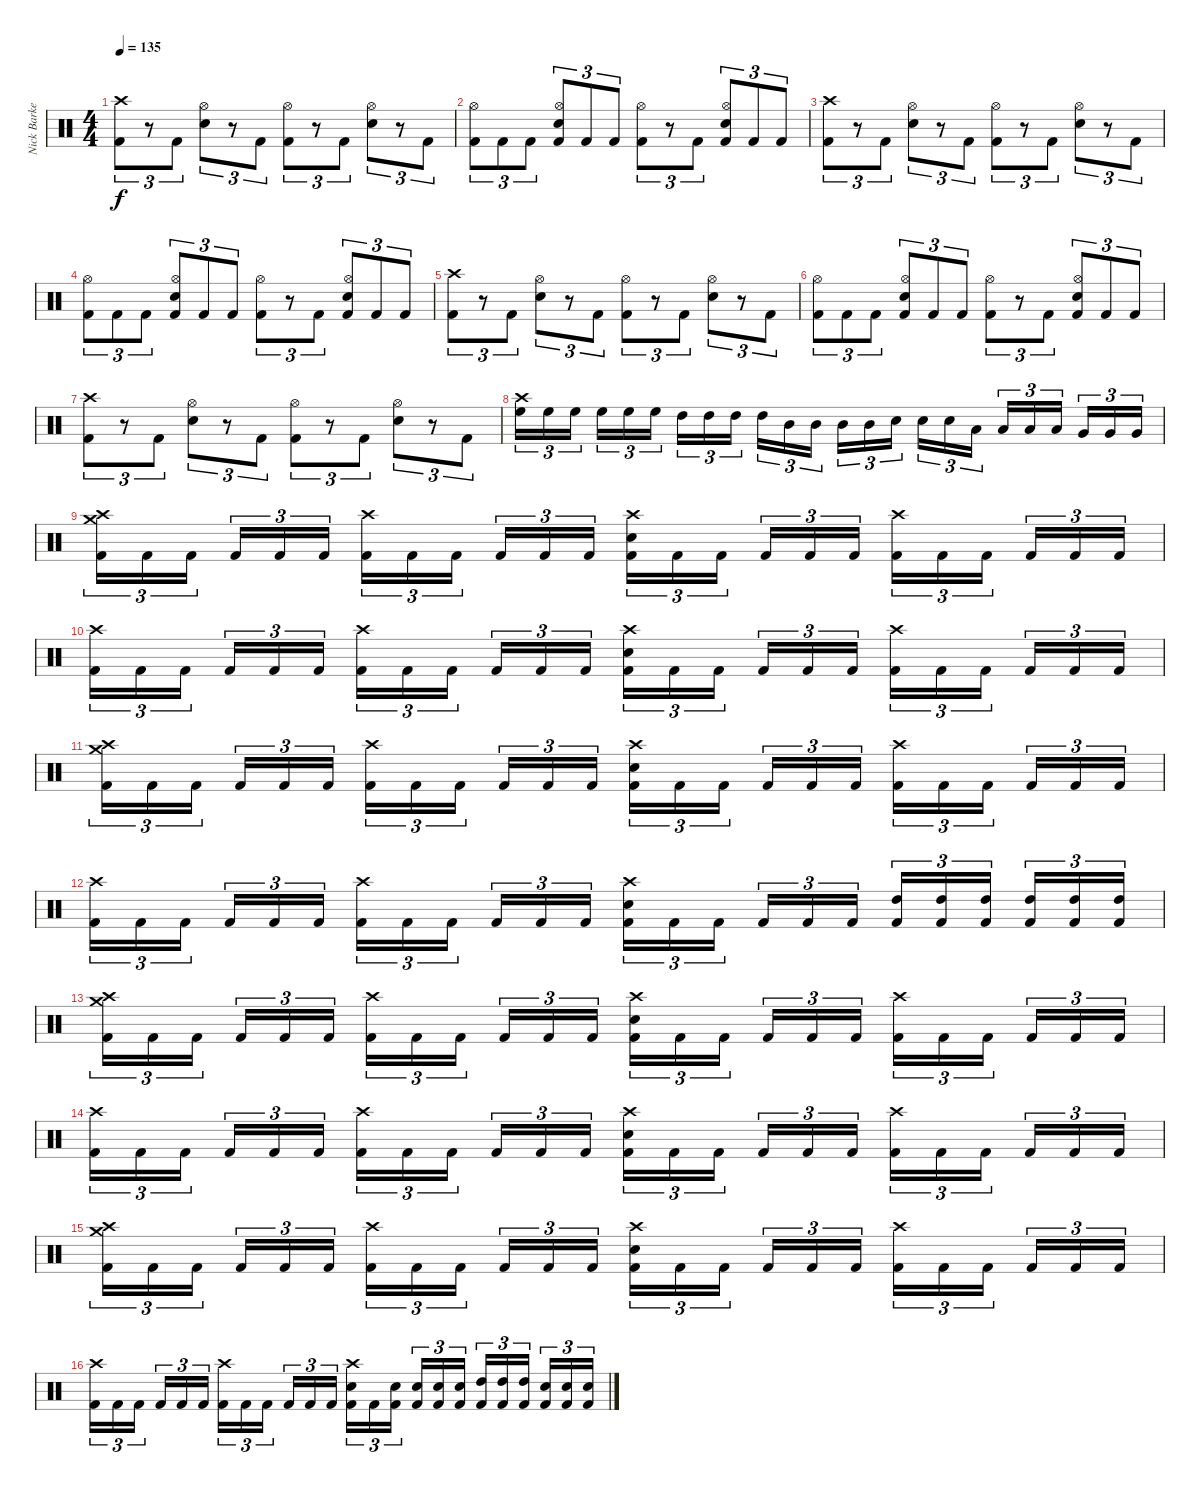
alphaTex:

\track ("Nick Barker" "Nick Barke") {instrument percussion}
\staff {score}
\articulation defaults
\ts (4 4)
\section ("" "")
\tempo 135
\clef neutral
\ks c
("Crash high (hit)" "Kick (hit) 2").8{tu (3 2) dy f} r.8{tu (3 2)} "Kick (hit) 2".8{tu (3 2)} ("Hi-Hat (open)" "Electric Snare (hit)").8{tu (3 2)} r.8{tu (3 2)} "Kick (hit) 2".8{tu (3 2)} ("Hi-Hat (open)" "Kick (hit) 2").8{tu (3 2)} r.8{tu (3 2)} "Kick (hit) 2".8{tu (3 2)} ("Hi-Hat (open)" "Electric Snare (hit)").8{tu (3 2)} r.8{tu (3 2)} "Kick (hit) 2".8{tu (3 2)} |
("Hi-Hat (open)" "Kick (hit) 2").8{tu (3 2)} "Kick (hit) 2".8{tu (3 2)} "Kick (hit) 2".8{tu (3 2)} ("Hi-Hat (open)" "Electric Snare (hit)" "Kick (hit) 2").8{tu (3 2)} "Kick (hit) 2".8{tu (3 2)} "Kick (hit) 2".8{tu (3 2)} ("Hi-Hat (open)" "Kick (hit) 2").8{tu (3 2)} r.8{tu (3 2)} "Kick (hit) 2".8{tu (3 2)} ("Hi-Hat (open)" "Electric Snare (hit)" "Kick (hit) 2").8{tu (3 2)} "Kick (hit) 2".8{tu (3 2)} "Kick (hit) 2".8{tu (3 2)} |
("Crash high (hit)" "Kick (hit) 2").8{tu (3 2)} r.8{tu (3 2)} "Kick (hit) 2".8{tu (3 2)} ("Hi-Hat (open)" "Electric Snare (hit)").8{tu (3 2)} r.8{tu (3 2)} "Kick (hit) 2".8{tu (3 2)} ("Hi-Hat (open)" "Kick (hit) 2").8{tu (3 2)} r.8{tu (3 2)} "Kick (hit) 2".8{tu (3 2)} ("Hi-Hat (open)" "Electric Snare (hit)").8{tu (3 2)} r.8{tu (3 2)} "Kick (hit) 2".8{tu (3 2)} |
("Hi-Hat (open)" "Kick (hit) 2").8{tu (3 2)} "Kick (hit) 2".8{tu (3 2)} "Kick (hit) 2".8{tu (3 2)} ("Hi-Hat (open)" "Electric Snare (hit)" "Kick (hit) 2").8{tu (3 2)} "Kick (hit) 2".8{tu (3 2)} "Kick (hit) 2".8{tu (3 2)} ("Hi-Hat (open)" "Kick (hit) 2").8{tu (3 2)} r.8{tu (3 2)} "Kick (hit) 2".8{tu (3 2)} ("Hi-Hat (open)" "Electric Snare (hit)" "Kick (hit) 2").8{tu (3 2)} "Kick (hit) 2".8{tu (3 2)} "Kick (hit) 2".8{tu (3 2)} |
("Crash high (hit)" "Kick (hit) 2").8{tu (3 2)} r.8{tu (3 2)} "Kick (hit) 2".8{tu (3 2)} ("Hi-Hat (open)" "Electric Snare (hit)").8{tu (3 2)} r.8{tu (3 2)} "Kick (hit) 2".8{tu (3 2)} ("Hi-Hat (open)" "Kick (hit) 2").8{tu (3 2)} r.8{tu (3 2)} "Kick (hit) 2".8{tu (3 2)} ("Hi-Hat (open)" "Electric Snare (hit)").8{tu (3 2)} r.8{tu (3 2)} "Kick (hit) 2".8{tu (3 2)} |
("Hi-Hat (open)" "Kick (hit) 2").8{tu (3 2)} "Kick (hit) 2".8{tu (3 2)} "Kick (hit) 2".8{tu (3 2)} ("Hi-Hat (open)" "Electric Snare (hit)" "Kick (hit) 2").8{tu (3 2)} "Kick (hit) 2".8{tu (3 2)} "Kick (hit) 2".8{tu (3 2)} ("Hi-Hat (open)" "Kick (hit) 2").8{tu (3 2)} r.8{tu (3 2)} "Kick (hit) 2".8{tu (3 2)} ("Hi-Hat (open)" "Electric Snare (hit)" "Kick (hit) 2").8{tu (3 2)} "Kick (hit) 2".8{tu (3 2)} "Kick (hit) 2".8{tu (3 2)} |
("Crash high (hit)" "Kick (hit) 2").8{tu (3 2)} r.8{tu (3 2)} "Kick (hit) 2".8{tu (3 2)} ("Hi-Hat (open)" "Electric Snare (hit)").8{tu (3 2)} r.8{tu (3 2)} "Kick (hit) 2".8{tu (3 2)} ("Hi-Hat (open)" "Kick (hit) 2").8{tu (3 2)} r.8{tu (3 2)} "Kick (hit) 2".8{tu (3 2)} ("Hi-Hat (open)" "Electric Snare (hit)").8{tu (3 2)} r.8{tu (3 2)} "Kick (hit) 2".8{tu (3 2)} |
("Crash high (hit)" "High Floor Tom (hit)").16{tu (3 2)} "High Floor Tom (hit)".16{tu (3 2)} "High Floor Tom (hit)".16{tu (3 2)} "High Floor Tom (hit)".16{tu (3 2)} "High Floor Tom (hit)".16{tu (3 2)} "High Floor Tom (hit)".16{tu (3 2)} "High Tom (hit)".16{tu (3 2)} "High Tom (hit)".16{tu (3 2)} "High Tom (hit)".16{tu (3 2)} "High Tom (hit)".16{tu (3 2)} "Mid Tom (hit)".16{tu (3 2)} "Mid Tom (hit)".16{tu (3 2)} "Mid Tom (hit)".16{tu (3 2)} "Mid Tom (hit)".16{tu (3 2)} "Electric Snare (hit)".16{tu (3 2)} "Electric Snare (hit)".16{tu (3 2)} "Electric Snare (hit)".16{tu (3 2)} "Low Tom (hit)".16{tu (3 2)} "Low Tom (hit)".16{tu (3 2)} "Low Tom (hit)".16{tu (3 2)} "Low Tom (hit)".16{tu (3 2)} "Very Low Tom (hit)".16{tu (3 2)} "Very Low Tom (hit)".16{tu (3 2)} "Very Low Tom (hit)".16{tu (3 2)} |
\section ("" "")
("Crash high (hit)" "Crash medium (hit)" "Kick (hit) 2").16{tu (3 2)} "Kick (hit) 2".16{tu (3 2)} "Kick (hit) 2".16{tu (3 2)} "Kick (hit) 2".16{tu (3 2)} "Kick (hit) 2".16{tu (3 2)} "Kick (hit) 2".16{tu (3 2)} ("Crash high (hit)" "Kick (hit) 2").16{tu (3 2)} "Kick (hit) 2".16{tu (3 2)} "Kick (hit) 2".16{tu (3 2)} "Kick (hit) 2".16{tu (3 2)} "Kick (hit) 2".16{tu (3 2)} "Kick (hit) 2".16{tu (3 2)} ("Crash high (hit)" "Electric Snare (hit)" "Kick (hit) 2").16{tu (3 2)} "Kick (hit) 2".16{tu (3 2)} "Kick (hit) 2".16{tu (3 2)} "Kick (hit) 2".16{tu (3 2)} "Kick (hit) 2".16{tu (3 2)} "Kick (hit) 2".16{tu (3 2)} ("Crash high (hit)" "Kick (hit) 2").16{tu (3 2)} "Kick (hit) 2".16{tu (3 2)} "Kick (hit) 2".16{tu (3 2)} "Kick (hit) 2".16{tu (3 2)} "Kick (hit) 2".16{tu (3 2)} "Kick (hit) 2".16{tu (3 2)} |
("Crash high (hit)" "Kick (hit) 2").16{tu (3 2)} "Kick (hit) 2".16{tu (3 2)} "Kick (hit) 2".16{tu (3 2)} "Kick (hit) 2".16{tu (3 2)} "Kick (hit) 2".16{tu (3 2)} "Kick (hit) 2".16{tu (3 2)} ("Crash high (hit)" "Kick (hit) 2").16{tu (3 2)} "Kick (hit) 2".16{tu (3 2)} "Kick (hit) 2".16{tu (3 2)} "Kick (hit) 2".16{tu (3 2)} "Kick (hit) 2".16{tu (3 2)} "Kick (hit) 2".16{tu (3 2)} ("Crash high (hit)" "Electric Snare (hit)" "Kick (hit) 2").16{tu (3 2)} "Kick (hit) 2".16{tu (3 2)} "Kick (hit) 2".16{tu (3 2)} "Kick (hit) 2".16{tu (3 2)} "Kick (hit) 2".16{tu (3 2)} "Kick (hit) 2".16{tu (3 2)} ("Crash high (hit)" "Kick (hit) 2").16{tu (3 2)} "Kick (hit) 2".16{tu (3 2)} "Kick (hit) 2".16{tu (3 2)} "Kick (hit) 2".16{tu (3 2)} "Kick (hit) 2".16{tu (3 2)} "Kick (hit) 2".16{tu (3 2)} |
("Crash high (hit)" "Crash medium (hit)" "Kick (hit) 2").16{tu (3 2)} "Kick (hit) 2".16{tu (3 2)} "Kick (hit) 2".16{tu (3 2)} "Kick (hit) 2".16{tu (3 2)} "Kick (hit) 2".16{tu (3 2)} "Kick (hit) 2".16{tu (3 2)} ("Crash high (hit)" "Kick (hit) 2").16{tu (3 2)} "Kick (hit) 2".16{tu (3 2)} "Kick (hit) 2".16{tu (3 2)} "Kick (hit) 2".16{tu (3 2)} "Kick (hit) 2".16{tu (3 2)} "Kick (hit) 2".16{tu (3 2)} ("Crash high (hit)" "Electric Snare (hit)" "Kick (hit) 2").16{tu (3 2)} "Kick (hit) 2".16{tu (3 2)} "Kick (hit) 2".16{tu (3 2)} "Kick (hit) 2".16{tu (3 2)} "Kick (hit) 2".16{tu (3 2)} "Kick (hit) 2".16{tu (3 2)} ("Crash high (hit)" "Kick (hit) 2").16{tu (3 2)} "Kick (hit) 2".16{tu (3 2)} "Kick (hit) 2".16{tu (3 2)} "Kick (hit) 2".16{tu (3 2)} "Kick (hit) 2".16{tu (3 2)} "Kick (hit) 2".16{tu (3 2)} |
("Crash high (hit)" "Kick (hit) 2").16{tu (3 2)} "Kick (hit) 2".16{tu (3 2)} "Kick (hit) 2".16{tu (3 2)} "Kick (hit) 2".16{tu (3 2)} "Kick (hit) 2".16{tu (3 2)} "Kick (hit) 2".16{tu (3 2)} ("Crash high (hit)" "Kick (hit) 2").16{tu (3 2)} "Kick (hit) 2".16{tu (3 2)} "Kick (hit) 2".16{tu (3 2)} "Kick (hit) 2".16{tu (3 2)} "Kick (hit) 2".16{tu (3 2)} "Kick (hit) 2".16{tu (3 2)} ("Crash high (hit)" "Electric Snare (hit)" "Kick (hit) 2").16{tu (3 2)} "Kick (hit) 2".16{tu (3 2)} "Kick (hit) 2".16{tu (3 2)} "Kick (hit) 2".16{tu (3 2)} "Kick (hit) 2".16{tu (3 2)} "Kick (hit) 2".16{tu (3 2)} ("High Tom (hit)" "Kick (hit) 2").16{tu (3 2)} ("High Tom (hit)" "Kick (hit) 2").16{tu (3 2)} ("High Tom (hit)" "Kick (hit) 2").16{tu (3 2)} ("High Tom (hit)" "Kick (hit) 2").16{tu (3 2)} ("High Tom (hit)" "Kick (hit) 2").16{tu (3 2)} ("High Tom (hit)" "Kick (hit) 2").16{tu (3 2)} |
("Crash high (hit)" "Crash medium (hit)" "Kick (hit) 2").16{tu (3 2)} "Kick (hit) 2".16{tu (3 2)} "Kick (hit) 2".16{tu (3 2)} "Kick (hit) 2".16{tu (3 2)} "Kick (hit) 2".16{tu (3 2)} "Kick (hit) 2".16{tu (3 2)} ("Crash high (hit)" "Kick (hit) 2").16{tu (3 2)} "Kick (hit) 2".16{tu (3 2)} "Kick (hit) 2".16{tu (3 2)} "Kick (hit) 2".16{tu (3 2)} "Kick (hit) 2".16{tu (3 2)} "Kick (hit) 2".16{tu (3 2)} ("Crash high (hit)" "Electric Snare (hit)" "Kick (hit) 2").16{tu (3 2)} "Kick (hit) 2".16{tu (3 2)} "Kick (hit) 2".16{tu (3 2)} "Kick (hit) 2".16{tu (3 2)} "Kick (hit) 2".16{tu (3 2)} "Kick (hit) 2".16{tu (3 2)} ("Crash high (hit)" "Kick (hit) 2").16{tu (3 2)} "Kick (hit) 2".16{tu (3 2)} "Kick (hit) 2".16{tu (3 2)} "Kick (hit) 2".16{tu (3 2)} "Kick (hit) 2".16{tu (3 2)} "Kick (hit) 2".16{tu (3 2)} |
("Crash high (hit)" "Kick (hit) 2").16{tu (3 2)} "Kick (hit) 2".16{tu (3 2)} "Kick (hit) 2".16{tu (3 2)} "Kick (hit) 2".16{tu (3 2)} "Kick (hit) 2".16{tu (3 2)} "Kick (hit) 2".16{tu (3 2)} ("Crash high (hit)" "Kick (hit) 2").16{tu (3 2)} "Kick (hit) 2".16{tu (3 2)} "Kick (hit) 2".16{tu (3 2)} "Kick (hit) 2".16{tu (3 2)} "Kick (hit) 2".16{tu (3 2)} "Kick (hit) 2".16{tu (3 2)} ("Crash high (hit)" "Electric Snare (hit)" "Kick (hit) 2").16{tu (3 2)} "Kick (hit) 2".16{tu (3 2)} "Kick (hit) 2".16{tu (3 2)} "Kick (hit) 2".16{tu (3 2)} "Kick (hit) 2".16{tu (3 2)} "Kick (hit) 2".16{tu (3 2)} ("Crash high (hit)" "Kick (hit) 2").16{tu (3 2)} "Kick (hit) 2".16{tu (3 2)} "Kick (hit) 2".16{tu (3 2)} "Kick (hit) 2".16{tu (3 2)} "Kick (hit) 2".16{tu (3 2)} "Kick (hit) 2".16{tu (3 2)} |
("Crash high (hit)" "Crash medium (hit)" "Kick (hit) 2").16{tu (3 2)} "Kick (hit) 2".16{tu (3 2)} "Kick (hit) 2".16{tu (3 2)} "Kick (hit) 2".16{tu (3 2)} "Kick (hit) 2".16{tu (3 2)} "Kick (hit) 2".16{tu (3 2)} ("Crash high (hit)" "Kick (hit) 2").16{tu (3 2)} "Kick (hit) 2".16{tu (3 2)} "Kick (hit) 2".16{tu (3 2)} "Kick (hit) 2".16{tu (3 2)} "Kick (hit) 2".16{tu (3 2)} "Kick (hit) 2".16{tu (3 2)} ("Crash high (hit)" "Electric Snare (hit)" "Kick (hit) 2").16{tu (3 2)} "Kick (hit) 2".16{tu (3 2)} "Kick (hit) 2".16{tu (3 2)} "Kick (hit) 2".16{tu (3 2)} "Kick (hit) 2".16{tu (3 2)} "Kick (hit) 2".16{tu (3 2)} ("Crash high (hit)" "Kick (hit) 2").16{tu (3 2)} "Kick (hit) 2".16{tu (3 2)} "Kick (hit) 2".16{tu (3 2)} "Kick (hit) 2".16{tu (3 2)} "Kick (hit) 2".16{tu (3 2)} "Kick (hit) 2".16{tu (3 2)} |
("Crash high (hit)" "Kick (hit) 2").16{tu (3 2)} "Kick (hit) 2".16{tu (3 2)} "Kick (hit) 2".16{tu (3 2)} "Kick (hit) 2".16{tu (3 2)} "Kick (hit) 2".16{tu (3 2)} "Kick (hit) 2".16{tu (3 2)} ("Crash high (hit)" "Kick (hit) 2").16{tu (3 2)} "Kick (hit) 2".16{tu (3 2)} "Kick (hit) 2".16{tu (3 2)} "Kick (hit) 2".16{tu (3 2)} "Kick (hit) 2".16{tu (3 2)} "Kick (hit) 2".16{tu (3 2)} ("Crash high (hit)" "Electric Snare (hit)" "Kick (hit) 2").16{tu (3 2)} "Kick (hit) 2".16{tu (3 2)} ("Electric Snare (hit)" "Kick (hit) 2").16{tu (3 2)} ("Electric Snare (hit)" "Kick (hit) 2").16{tu (3 2)} ("Electric Snare (hit)" "Kick (hit) 2").16{tu (3 2)} ("Electric Snare (hit)" "Kick (hit) 2").16{tu (3 2)} ("High Tom (hit)" "Kick (hit) 2").16{tu (3 2)} ("High Tom (hit)" "Kick (hit) 2").16{tu (3 2)} ("High Tom (hit)" "Kick (hit) 2").16{tu (3 2)} ("Electric Snare (hit)" "Kick (hit) 2").16{tu (3 2)} ("Electric Snare (hit)" "Kick (hit) 2").16{tu (3 2)} ("Electric Snare (hit)" "Kick (hit) 2").16{tu (3 2)}
